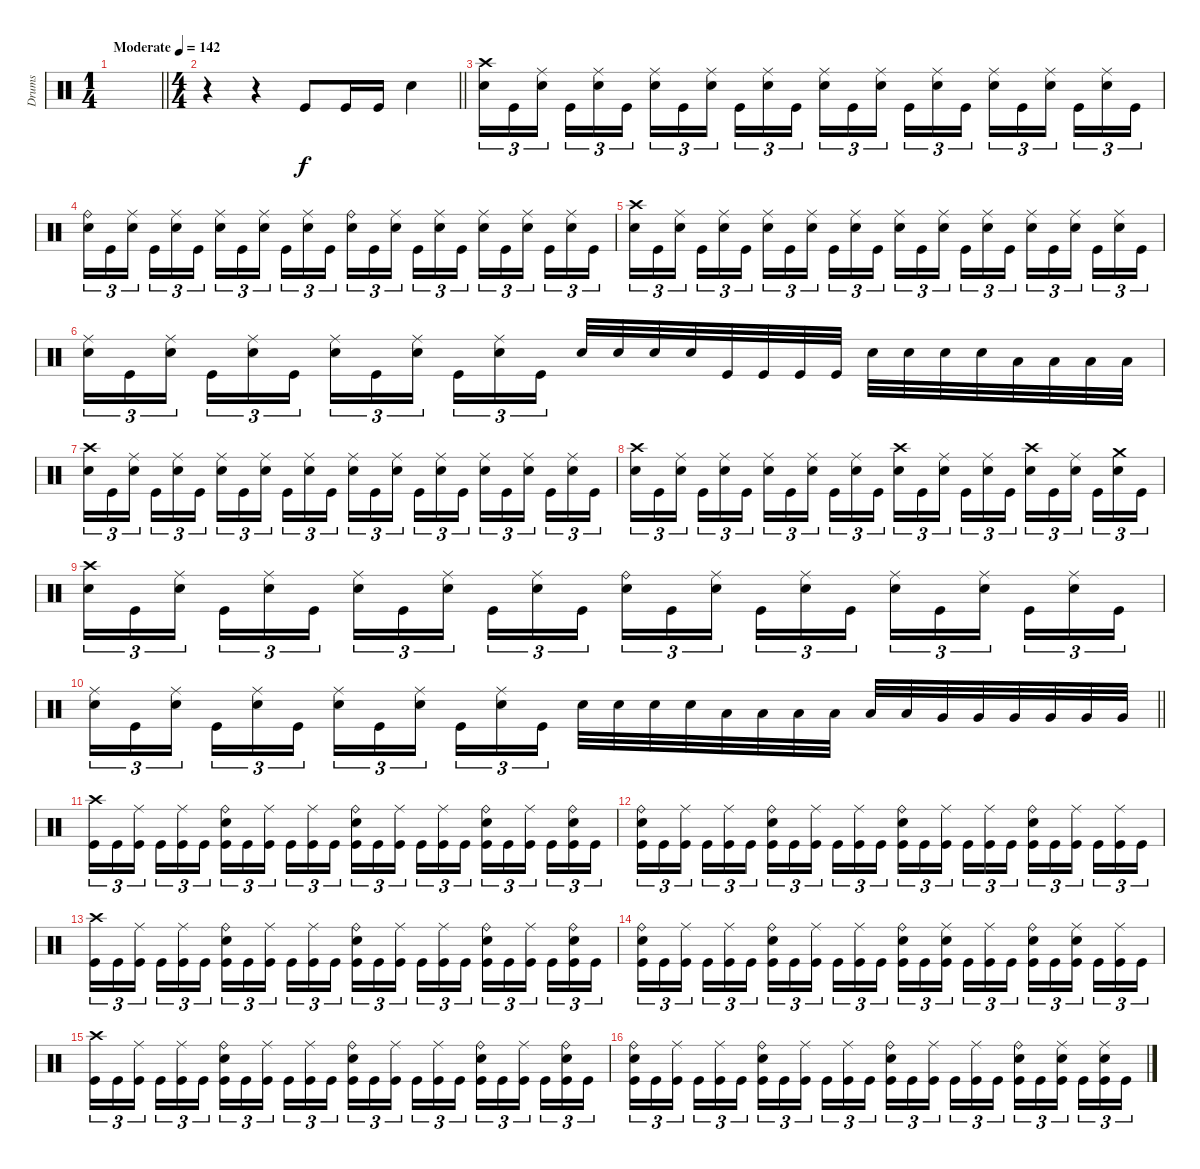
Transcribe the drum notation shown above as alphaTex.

\track ("Drums" "Drums") {instrument percussion}
\staff
\articulation defaults
\ts (1 4)
\tempo (142 "Moderate")
\clef neutral
\barLineRight lightlight
\ks c
|
\ts (4 4)
\barLineRight lightlight
r.4 r.4 "Kick (hit)".8 "Kick (hit)".16 "Kick (hit)".16 "Electric Snare (hit)".4 |
("Crash high (hit)" "Electric Snare (hit)").16{tu (3 2)} "Kick (hit)".16{tu (3 2)} ("Ride (middle)" "Electric Snare (hit)").16{tu (3 2) beam splitsecondary} "Kick (hit)".16{tu (3 2)} ("Ride (middle)" "Electric Snare (hit)").16{tu (3 2)} "Kick (hit)".16{tu (3 2)} ("Ride (middle)" "Electric Snare (hit)").16{tu (3 2)} "Kick (hit)".16{tu (3 2)} ("Ride (middle)" "Electric Snare (hit)").16{tu (3 2) beam splitsecondary} "Kick (hit)".16{tu (3 2)} ("Ride (middle)" "Electric Snare (hit)").16{tu (3 2)} "Kick (hit)".16{tu (3 2)} ("Ride (middle)" "Electric Snare (hit)").16{tu (3 2)} "Kick (hit)".16{tu (3 2)} ("Ride (middle)" "Electric Snare (hit)").16{tu (3 2) beam splitsecondary} "Kick (hit)".16{tu (3 2)} ("Ride (middle)" "Electric Snare (hit)").16{tu (3 2)} "Kick (hit)".16{tu (3 2)} ("Ride (middle)" "Electric Snare (hit)").16{tu (3 2)} "Kick (hit)".16{tu (3 2)} ("Ride (middle)" "Electric Snare (hit)").16{tu (3 2) beam splitsecondary} "Kick (hit)".16{tu (3 2)} ("Ride (middle)" "Electric Snare (hit)").16{tu (3 2)} "Kick (hit)".16{tu (3 2)} |
("Ride (bell)" "Electric Snare (hit)").16{tu (3 2)} "Kick (hit)".16{tu (3 2)} ("Ride (middle)" "Electric Snare (hit)").16{tu (3 2) beam splitsecondary} "Kick (hit)".16{tu (3 2)} ("Ride (middle)" "Electric Snare (hit)").16{tu (3 2)} "Kick (hit)".16{tu (3 2)} ("Ride (middle)" "Electric Snare (hit)").16{tu (3 2)} "Kick (hit)".16{tu (3 2)} ("Ride (middle)" "Electric Snare (hit)").16{tu (3 2) beam splitsecondary} "Kick (hit)".16{tu (3 2)} ("Ride (middle)" "Electric Snare (hit)").16{tu (3 2)} "Kick (hit)".16{tu (3 2)} ("Ride (bell)" "Electric Snare (hit)").16{tu (3 2)} "Kick (hit)".16{tu (3 2)} ("Ride (middle)" "Electric Snare (hit)").16{tu (3 2) beam splitsecondary} "Kick (hit)".16{tu (3 2)} ("Ride (middle)" "Electric Snare (hit)").16{tu (3 2)} "Kick (hit)".16{tu (3 2)} ("Ride (middle)" "Electric Snare (hit)").16{tu (3 2)} "Kick (hit)".16{tu (3 2)} ("Ride (middle)" "Electric Snare (hit)").16{tu (3 2) beam splitsecondary} "Kick (hit)".16{tu (3 2)} ("Ride (middle)" "Electric Snare (hit)").16{tu (3 2)} "Kick (hit)".16{tu (3 2)} |
("Crash high (hit)" "Electric Snare (hit)").16{tu (3 2)} "Kick (hit)".16{tu (3 2)} ("Ride (middle)" "Electric Snare (hit)").16{tu (3 2) beam splitsecondary} "Kick (hit)".16{tu (3 2)} ("Ride (middle)" "Electric Snare (hit)").16{tu (3 2)} "Kick (hit)".16{tu (3 2)} ("Ride (middle)" "Electric Snare (hit)").16{tu (3 2)} "Kick (hit)".16{tu (3 2)} ("Ride (middle)" "Electric Snare (hit)").16{tu (3 2) beam splitsecondary} "Kick (hit)".16{tu (3 2)} ("Ride (middle)" "Electric Snare (hit)").16{tu (3 2)} "Kick (hit)".16{tu (3 2)} ("Ride (middle)" "Electric Snare (hit)").16{tu (3 2)} "Kick (hit)".16{tu (3 2)} ("Ride (middle)" "Electric Snare (hit)").16{tu (3 2) beam splitsecondary} "Kick (hit)".16{tu (3 2)} ("Ride (middle)" "Electric Snare (hit)").16{tu (3 2)} "Kick (hit)".16{tu (3 2)} ("Ride (middle)" "Electric Snare (hit)").16{tu (3 2)} "Kick (hit)".16{tu (3 2)} ("Ride (middle)" "Electric Snare (hit)").16{tu (3 2) beam splitsecondary} "Kick (hit)".16{tu (3 2)} ("Ride (middle)" "Electric Snare (hit)").16{tu (3 2)} "Kick (hit)".16{tu (3 2)} |
("Ride (middle)" "Electric Snare (hit)").16{tu (3 2)} "Kick (hit)".16{tu (3 2)} ("Ride (middle)" "Electric Snare (hit)").16{tu (3 2) beam splitsecondary} "Kick (hit)".16{tu (3 2)} ("Ride (middle)" "Electric Snare (hit)").16{tu (3 2)} "Kick (hit)".16{tu (3 2)} ("Ride (middle)" "Electric Snare (hit)").16{tu (3 2)} "Kick (hit)".16{tu (3 2)} ("Ride (middle)" "Electric Snare (hit)").16{tu (3 2) beam splitsecondary} "Kick (hit)".16{tu (3 2)} ("Ride (middle)" "Electric Snare (hit)").16{tu (3 2)} "Kick (hit)".16{tu (3 2)} "Electric Snare (hit)".32 "Electric Snare (hit)".32 "Electric Snare (hit)".32 "Electric Snare (hit)".32 "Kick (hit)".32 "Kick (hit)".32 "Kick (hit)".32 "Kick (hit)".32 "Electric Snare (hit)".32 "Electric Snare (hit)".32 "Electric Snare (hit)".32 "Electric Snare (hit)".32 "Low Tom (hit)".32 "Low Tom (hit)".32 "Low Tom (hit)".32 "Low Tom (hit)".32 |
("Crash high (hit)" "Electric Snare (hit)").16{tu (3 2)} "Kick (hit)".16{tu (3 2)} ("Ride (middle)" "Electric Snare (hit)").16{tu (3 2) beam splitsecondary} "Kick (hit)".16{tu (3 2)} ("Ride (middle)" "Electric Snare (hit)").16{tu (3 2)} "Kick (hit)".16{tu (3 2)} ("Ride (middle)" "Electric Snare (hit)").16{tu (3 2)} "Kick (hit)".16{tu (3 2)} ("Ride (middle)" "Electric Snare (hit)").16{tu (3 2) beam splitsecondary} "Kick (hit)".16{tu (3 2)} ("Ride (middle)" "Electric Snare (hit)").16{tu (3 2)} "Kick (hit)".16{tu (3 2)} ("Ride (middle)" "Electric Snare (hit)").16{tu (3 2)} "Kick (hit)".16{tu (3 2)} ("Ride (middle)" "Electric Snare (hit)").16{tu (3 2) beam splitsecondary} "Kick (hit)".16{tu (3 2)} ("Ride (middle)" "Electric Snare (hit)").16{tu (3 2)} "Kick (hit)".16{tu (3 2)} ("Ride (middle)" "Electric Snare (hit)").16{tu (3 2)} "Kick (hit)".16{tu (3 2)} ("Ride (middle)" "Electric Snare (hit)").16{tu (3 2) beam splitsecondary} "Kick (hit)".16{tu (3 2)} ("Ride (middle)" "Electric Snare (hit)").16{tu (3 2)} "Kick (hit)".16{tu (3 2)} |
("Crash high (hit)" "Electric Snare (hit)").16{tu (3 2)} "Kick (hit)".16{tu (3 2)} ("Ride (middle)" "Electric Snare (hit)").16{tu (3 2) beam splitsecondary} "Kick (hit)".16{tu (3 2)} ("Ride (middle)" "Electric Snare (hit)").16{tu (3 2)} "Kick (hit)".16{tu (3 2)} ("Ride (middle)" "Electric Snare (hit)").16{tu (3 2)} "Kick (hit)".16{tu (3 2)} ("Ride (middle)" "Electric Snare (hit)").16{tu (3 2) beam splitsecondary} "Kick (hit)".16{tu (3 2)} ("Ride (middle)" "Electric Snare (hit)").16{tu (3 2)} "Kick (hit)".16{tu (3 2)} ("Crash high (hit)" "Electric Snare (hit)").16{tu (3 2)} "Kick (hit)".16{tu (3 2)} ("Ride (middle)" "Electric Snare (hit)").16{tu (3 2) beam splitsecondary} "Kick (hit)".16{tu (3 2)} ("Ride (middle)" "Electric Snare (hit)").16{tu (3 2)} "Kick (hit)".16{tu (3 2)} ("Crash high (hit)" "Electric Snare (hit)").16{tu (3 2)} "Kick (hit)".16{tu (3 2)} ("Ride (middle)" "Electric Snare (hit)").16{tu (3 2) beam splitsecondary} "Kick (hit)".16{tu (3 2)} ("Crash medium (hit)" "Electric Snare (hit)").16{tu (3 2)} "Kick (hit)".16{tu (3 2)} |
("Crash high (hit)" "Electric Snare (hit)").16{tu (3 2)} "Kick (hit)".16{tu (3 2)} ("Ride (middle)" "Electric Snare (hit)").16{tu (3 2) beam splitsecondary} "Kick (hit)".16{tu (3 2)} ("Ride (middle)" "Electric Snare (hit)").16{tu (3 2)} "Kick (hit)".16{tu (3 2)} ("Ride (middle)" "Electric Snare (hit)").16{tu (3 2)} "Kick (hit)".16{tu (3 2)} ("Ride (middle)" "Electric Snare (hit)").16{tu (3 2) beam splitsecondary} "Kick (hit)".16{tu (3 2)} ("Ride (middle)" "Electric Snare (hit)").16{tu (3 2)} "Kick (hit)".16{tu (3 2)} ("Ride (bell)" "Electric Snare (hit)").16{tu (3 2)} "Kick (hit)".16{tu (3 2)} ("Ride (middle)" "Electric Snare (hit)").16{tu (3 2) beam splitsecondary} "Kick (hit)".16{tu (3 2)} ("Ride (middle)" "Electric Snare (hit)").16{tu (3 2)} "Kick (hit)".16{tu (3 2)} ("Ride (middle)" "Electric Snare (hit)").16{tu (3 2)} "Kick (hit)".16{tu (3 2)} ("Ride (middle)" "Electric Snare (hit)").16{tu (3 2) beam splitsecondary} "Kick (hit)".16{tu (3 2)} ("Ride (middle)" "Electric Snare (hit)").16{tu (3 2)} "Kick (hit)".16{tu (3 2)} |
\barLineRight lightlight
("Ride (middle)" "Electric Snare (hit)").16{tu (3 2)} "Kick (hit)".16{tu (3 2)} ("Ride (middle)" "Electric Snare (hit)").16{tu (3 2) beam splitsecondary} "Kick (hit)".16{tu (3 2)} ("Ride (middle)" "Electric Snare (hit)").16{tu (3 2)} "Kick (hit)".16{tu (3 2)} ("Ride (middle)" "Electric Snare (hit)").16{tu (3 2)} "Kick (hit)".16{tu (3 2)} ("Ride (middle)" "Electric Snare (hit)").16{tu (3 2) beam splitsecondary} "Kick (hit)".16{tu (3 2)} ("Ride (middle)" "Electric Snare (hit)").16{tu (3 2)} "Kick (hit)".16{tu (3 2)} "Electric Snare (hit)".32 "Electric Snare (hit)".32 "Electric Snare (hit)".32 "Electric Snare (hit)".32 "Low Tom (hit)".32 "Low Tom (hit)".32 "Low Tom (hit)".32 "Low Tom (hit)".32 "Low Tom (hit)".32 "Low Tom (hit)".32 "Very Low Tom (hit)".32 "Very Low Tom (hit)".32 "Very Low Tom (hit)".32 "Very Low Tom (hit)".32 "Very Low Tom (hit)".32 "Very Low Tom (hit)".32 |
("Crash high (hit)" "Kick (hit)").16{tu (3 2)} "Kick (hit)".16{tu (3 2)} ("Ride (middle)" "Kick (hit)").16{tu (3 2) beam splitsecondary} "Kick (hit)".16{tu (3 2)} ("Ride (middle)" "Kick (hit)").16{tu (3 2)} "Kick (hit)".16{tu (3 2)} ("Ride (bell)" "Electric Snare (hit)" "Kick (hit)").16{tu (3 2)} "Kick (hit)".16{tu (3 2)} ("Ride (middle)" "Kick (hit)").16{tu (3 2) beam splitsecondary} "Kick (hit)".16{tu (3 2)} ("Ride (middle)" "Kick (hit)").16{tu (3 2)} "Kick (hit)".16{tu (3 2)} ("Ride (bell)" "Electric Snare (hit)" "Kick (hit)").16{tu (3 2)} "Kick (hit)".16{tu (3 2)} ("Ride (middle)" "Kick (hit)").16{tu (3 2) beam splitsecondary} "Kick (hit)".16{tu (3 2)} ("Ride (middle)" "Kick (hit)").16{tu (3 2)} "Kick (hit)".16{tu (3 2)} ("Ride (bell)" "Electric Snare (hit)" "Kick (hit)").16{tu (3 2)} "Kick (hit)".16{tu (3 2)} ("Ride (middle)" "Kick (hit)").16{tu (3 2) beam splitsecondary} "Kick (hit)".16{tu (3 2)} ("Ride (bell)" "Electric Snare (hit)" "Kick (hit)").16{tu (3 2)} "Kick (hit)".16{tu (3 2)} |
("Ride (bell)" "Electric Snare (hit)" "Kick (hit)").16{tu (3 2)} "Kick (hit)".16{tu (3 2)} ("Ride (middle)" "Kick (hit)").16{tu (3 2) beam splitsecondary} "Kick (hit)".16{tu (3 2)} ("Ride (middle)" "Kick (hit)").16{tu (3 2)} "Kick (hit)".16{tu (3 2)} ("Ride (bell)" "Electric Snare (hit)" "Kick (hit)").16{tu (3 2)} "Kick (hit)".16{tu (3 2)} ("Ride (middle)" "Kick (hit)").16{tu (3 2) beam splitsecondary} "Kick (hit)".16{tu (3 2)} ("Ride (middle)" "Kick (hit)").16{tu (3 2)} "Kick (hit)".16{tu (3 2)} ("Ride (bell)" "Electric Snare (hit)" "Kick (hit)").16{tu (3 2)} "Kick (hit)".16{tu (3 2)} ("Ride (middle)" "Kick (hit)").16{tu (3 2) beam splitsecondary} "Kick (hit)".16{tu (3 2)} ("Ride (middle)" "Kick (hit)").16{tu (3 2)} "Kick (hit)".16{tu (3 2)} ("Ride (bell)" "Electric Snare (hit)" "Kick (hit)").16{tu (3 2)} "Kick (hit)".16{tu (3 2)} ("Ride (middle)" "Kick (hit)").16{tu (3 2) beam splitsecondary} "Kick (hit)".16{tu (3 2)} ("Ride (middle)" "Kick (hit)").16{tu (3 2)} "Kick (hit)".16{tu (3 2)} |
("Crash high (hit)" "Kick (hit)").16{tu (3 2)} "Kick (hit)".16{tu (3 2)} ("Ride (middle)" "Kick (hit)").16{tu (3 2) beam splitsecondary} "Kick (hit)".16{tu (3 2)} ("Ride (middle)" "Kick (hit)").16{tu (3 2)} "Kick (hit)".16{tu (3 2)} ("Ride (bell)" "Electric Snare (hit)" "Kick (hit)").16{tu (3 2)} "Kick (hit)".16{tu (3 2)} ("Ride (middle)" "Kick (hit)").16{tu (3 2) beam splitsecondary} "Kick (hit)".16{tu (3 2)} ("Ride (middle)" "Kick (hit)").16{tu (3 2)} "Kick (hit)".16{tu (3 2)} ("Ride (bell)" "Electric Snare (hit)" "Kick (hit)").16{tu (3 2)} "Kick (hit)".16{tu (3 2)} ("Ride (middle)" "Kick (hit)").16{tu (3 2) beam splitsecondary} "Kick (hit)".16{tu (3 2)} ("Ride (middle)" "Kick (hit)").16{tu (3 2)} "Kick (hit)".16{tu (3 2)} ("Ride (bell)" "Electric Snare (hit)" "Kick (hit)").16{tu (3 2)} "Kick (hit)".16{tu (3 2)} ("Ride (middle)" "Kick (hit)").16{tu (3 2) beam splitsecondary} "Kick (hit)".16{tu (3 2)} ("Ride (bell)" "Electric Snare (hit)" "Kick (hit)").16{tu (3 2)} "Kick (hit)".16{tu (3 2)} |
("Ride (bell)" "Electric Snare (hit)" "Kick (hit)").16{tu (3 2)} "Kick (hit)".16{tu (3 2)} ("Ride (middle)" "Kick (hit)").16{tu (3 2) beam splitsecondary} "Kick (hit)".16{tu (3 2)} ("Ride (middle)" "Kick (hit)").16{tu (3 2)} "Kick (hit)".16{tu (3 2)} ("Ride (bell)" "Electric Snare (hit)" "Kick (hit)").16{tu (3 2)} "Kick (hit)".16{tu (3 2)} ("Ride (middle)" "Kick (hit)").16{tu (3 2) beam splitsecondary} "Kick (hit)".16{tu (3 2)} ("Ride (middle)" "Kick (hit)").16{tu (3 2)} "Kick (hit)".16{tu (3 2)} ("Ride (bell)" "Electric Snare (hit)" "Kick (hit)").16{tu (3 2)} "Kick (hit)".16{tu (3 2)} ("Ride (middle)" "Electric Snare (hit)" "Kick (hit)").16{tu (3 2) beam splitsecondary} "Kick (hit)".16{tu (3 2)} ("Ride (middle)" "Kick (hit)").16{tu (3 2)} "Kick (hit)".16{tu (3 2)} ("Ride (bell)" "Electric Snare (hit)" "Kick (hit)").16{tu (3 2)} "Kick (hit)".16{tu (3 2)} ("Ride (middle)" "Electric Snare (hit)" "Kick (hit)").16{tu (3 2) beam splitsecondary} "Kick (hit)".16{tu (3 2)} ("Ride (middle)" "Kick (hit)").16{tu (3 2)} "Kick (hit)".16{tu (3 2)} |
("Crash high (hit)" "Kick (hit)").16{tu (3 2)} "Kick (hit)".16{tu (3 2)} ("Ride (middle)" "Kick (hit)").16{tu (3 2) beam splitsecondary} "Kick (hit)".16{tu (3 2)} ("Ride (middle)" "Kick (hit)").16{tu (3 2)} "Kick (hit)".16{tu (3 2)} ("Ride (bell)" "Electric Snare (hit)" "Kick (hit)").16{tu (3 2)} "Kick (hit)".16{tu (3 2)} ("Ride (middle)" "Kick (hit)").16{tu (3 2) beam splitsecondary} "Kick (hit)".16{tu (3 2)} ("Ride (middle)" "Kick (hit)").16{tu (3 2)} "Kick (hit)".16{tu (3 2)} ("Ride (bell)" "Electric Snare (hit)" "Kick (hit)").16{tu (3 2)} "Kick (hit)".16{tu (3 2)} ("Ride (middle)" "Kick (hit)").16{tu (3 2) beam splitsecondary} "Kick (hit)".16{tu (3 2)} ("Ride (middle)" "Kick (hit)").16{tu (3 2)} "Kick (hit)".16{tu (3 2)} ("Ride (bell)" "Electric Snare (hit)" "Kick (hit)").16{tu (3 2)} "Kick (hit)".16{tu (3 2)} ("Ride (middle)" "Kick (hit)").16{tu (3 2) beam splitsecondary} "Kick (hit)".16{tu (3 2)} ("Ride (bell)" "Electric Snare (hit)" "Kick (hit)").16{tu (3 2)} "Kick (hit)".16{tu (3 2)} |
("Ride (bell)" "Electric Snare (hit)" "Kick (hit)").16{tu (3 2)} "Kick (hit)".16{tu (3 2)} ("Ride (middle)" "Kick (hit)").16{tu (3 2) beam splitsecondary} "Kick (hit)".16{tu (3 2)} ("Ride (middle)" "Kick (hit)").16{tu (3 2)} "Kick (hit)".16{tu (3 2)} ("Ride (bell)" "Electric Snare (hit)" "Kick (hit)").16{tu (3 2)} "Kick (hit)".16{tu (3 2)} ("Ride (middle)" "Kick (hit)").16{tu (3 2) beam splitsecondary} "Kick (hit)".16{tu (3 2)} ("Ride (middle)" "Kick (hit)").16{tu (3 2)} "Kick (hit)".16{tu (3 2)} ("Ride (bell)" "Electric Snare (hit)" "Kick (hit)").16{tu (3 2)} "Kick (hit)".16{tu (3 2)} ("Ride (middle)" "Kick (hit)").16{tu (3 2) beam splitsecondary} "Kick (hit)".16{tu (3 2)} ("Ride (middle)" "Kick (hit)").16{tu (3 2)} "Kick (hit)".16{tu (3 2)} ("Ride (bell)" "Electric Snare (hit)" "Kick (hit)").16{tu (3 2)} "Kick (hit)".16{tu (3 2)} ("Ride (middle)" "Electric Snare (hit)" "Kick (hit)").16{tu (3 2) beam splitsecondary} "Kick (hit)".16{tu (3 2)} ("Ride (middle)" "Electric Snare (hit)" "Kick (hit)").16{tu (3 2)} "Kick (hit)".16{tu (3 2)}
